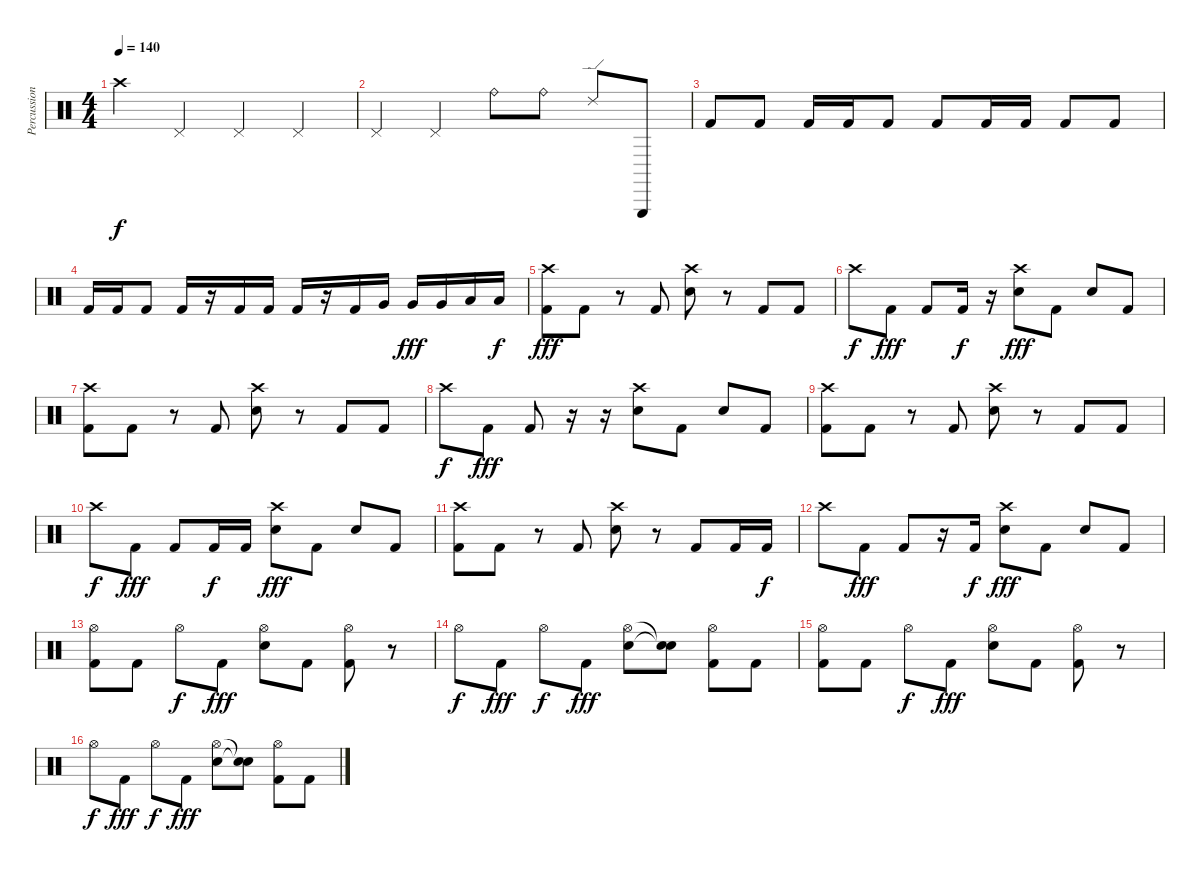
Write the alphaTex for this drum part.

\track ("Percussion" "Percussion") {instrument percussion}
\staff {score}
\articulation defaults
\ts (4 4)
\tempo 140
\clef neutral
\ks c "Crash high (hit)".4{dy f} "Pedal Hi-Hat (hit)".4 "Pedal Hi-Hat (hit)".4 "Pedal Hi-Hat (hit)".4
|
"Pedal Hi-Hat (hit)".4 "Pedal Hi-Hat (hit)".4 "Ride (bell)".8 "Ride (bell)".8 "Ride (edge) 2".8 "Triangle (hit)".8 |
"Kick (hit) 2".8 "Kick (hit) 2".8 "Kick (hit) 2".16 "Kick (hit) 2".16 "Kick (hit) 2".8 "Kick (hit) 2".8 "Kick (hit) 2".16 "Kick (hit) 2".16 "Kick (hit) 2".8 "Kick (hit) 2".8 |
"Kick (hit) 2".16 "Kick (hit) 2".16 "Kick (hit) 2".8 "Kick (hit) 2".16 r.16 "Kick (hit) 2".16 "Kick (hit) 2".16 "Kick (hit) 2".16 r.16 "Kick (hit) 2".16 "Very Low Tom (hit)".16 "Very Low Tom (hit)".16{dy fff} "Very Low Tom (hit)".16 "Low Floor Tom (hit)".16 "Low Floor Tom (hit)".16{dy f} |
("Crash high (hit)" "Kick (hit) 2").8{dy fff} "Kick (hit) 2".8 r.8 "Kick (hit) 2".8 ("Crash high (hit)" "Electric Snare (hit)").8 r.8 "Kick (hit) 2".8 "Kick (hit) 2".8 |
"Crash high (hit)".8{dy f} "Kick (hit) 2".8{dy fff} "Kick (hit) 2".8 "Kick (hit) 2".16{dy f} r.16 ("Crash high (hit)" "Electric Snare (hit)").8{dy fff} "Kick (hit) 2".8 "Electric Snare (hit)".8 "Kick (hit) 2".8 |
("Crash high (hit)" "Kick (hit) 2").8 "Kick (hit) 2".8 r.8 "Kick (hit) 2".8 ("Crash high (hit)" "Electric Snare (hit)").8 r.8 "Kick (hit) 2".8 "Kick (hit) 2".8 |
"Crash high (hit)".8{dy f} "Kick (hit) 2".8{dy fff} "Kick (hit) 2".8 r.16 r.16 ("Crash high (hit)" "Electric Snare (hit)").8 "Kick (hit) 2".8 "Electric Snare (hit)".8 "Kick (hit) 2".8 |
("Crash high (hit)" "Kick (hit) 2").8 "Kick (hit) 2".8 r.8 "Kick (hit) 2".8 ("Crash high (hit)" "Electric Snare (hit)").8 r.8 "Kick (hit) 2".8 "Kick (hit) 2".8 |
"Crash high (hit)".8{dy f} "Kick (hit) 2".8{dy fff} "Kick (hit) 2".8 "Kick (hit) 2".16{dy f} "Kick (hit) 2".16 ("Crash high (hit)" "Electric Snare (hit)").8{dy fff} "Kick (hit) 2".8 "Electric Snare (hit)".8 "Kick (hit) 2".8 |
("Crash high (hit)" "Kick (hit) 2").8 "Kick (hit) 2".8 r.8 "Kick (hit) 2".8 ("Crash high (hit)" "Electric Snare (hit)").8 r.8 "Kick (hit) 2".8 "Kick (hit) 2".16 "Kick (hit) 2".16{dy f} |
"Crash high (hit)".8 "Kick (hit) 2".8{dy fff} "Kick (hit) 2".8 r.16 "Kick (hit) 2".16{dy f} ("Crash high (hit)" "Electric Snare (hit)").8{dy fff} "Kick (hit) 2".8 "Electric Snare (hit)".8 "Kick (hit) 2".8 |
("Hi-Hat (open)" "Kick (hit) 2").8 "Kick (hit) 2".8 "Hi-Hat (open)".8{dy f} "Kick (hit) 2".8{dy fff} ("Hi-Hat (open)" "Electric Snare (hit)").8 "Kick (hit) 2".8 ("Hi-Hat (open)" "Kick (hit) 2").8 r.8 |
"Hi-Hat (open)".8{dy f} "Kick (hit) 2".8{dy fff} "Hi-Hat (open)".8{dy f} "Kick (hit) 2".8{dy fff} ("Hi-Hat (open)" "Electric Snare (hit)").8 ("Snare (hit)"{t} "Snare (hit)"{t}).8 ("Hi-Hat (open)" "Kick (hit) 2").8 "Kick (hit) 2".8 |
("Hi-Hat (open)" "Kick (hit) 2").8 "Kick (hit) 2".8 "Hi-Hat (open)".8{dy f} "Kick (hit) 2".8{dy fff} ("Hi-Hat (open)" "Electric Snare (hit)").8 "Kick (hit) 2".8 ("Hi-Hat (open)" "Kick (hit) 2").8 r.8 |
"Hi-Hat (open)".8{dy f} "Kick (hit) 2".8{dy fff} "Hi-Hat (open)".8{dy f} "Kick (hit) 2".8{dy fff} ("Hi-Hat (open)" "Electric Snare (hit)").8 ("Snare (hit)"{t} "Snare (hit)"{t}).8 ("Hi-Hat (open)" "Kick (hit) 2").8 "Kick (hit) 2".8
